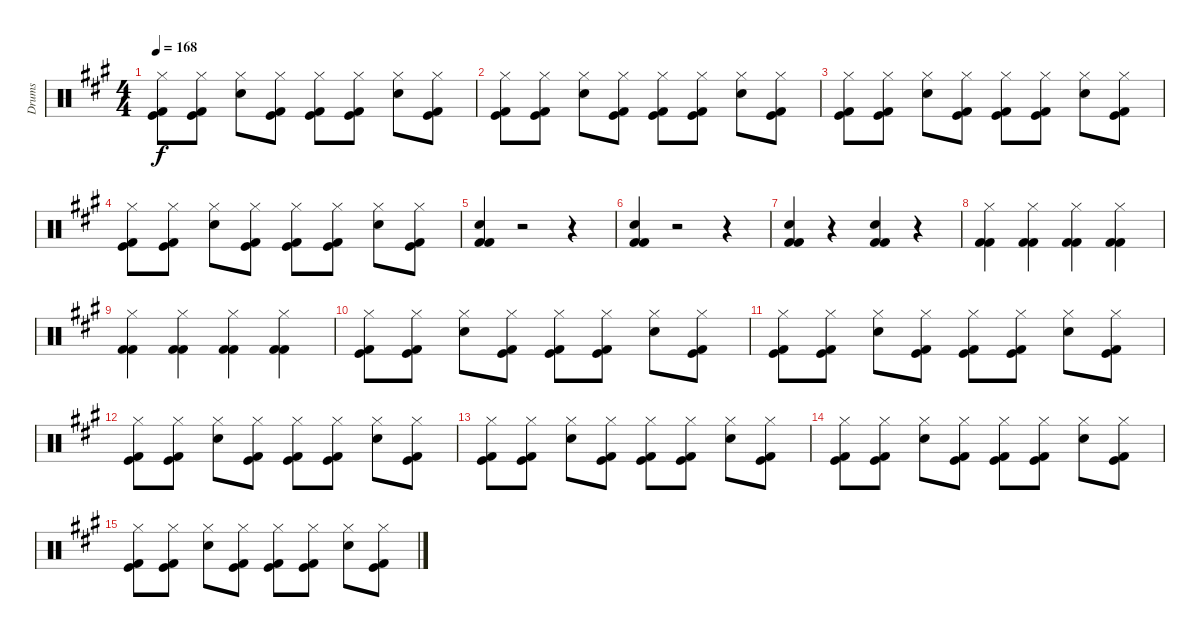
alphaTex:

\track ("Drums" "Drums") {instrument percussion}
\staff {score}
\articulation defaults
\ts (4 4)
\tempo 168
\clef neutral
\ks a
("Hi-Hat (closed)" "Kick (hit)" "Kick (hit) 2").8{dy f} ("Hi-Hat (closed)" "Kick (hit)" "Kick (hit) 2").8 ("Hi-Hat (closed)" "Snare (hit) 2").8 ("Hi-Hat (closed)" "Kick (hit)" "Kick (hit) 2").8 ("Hi-Hat (closed)" "Kick (hit)" "Kick (hit) 2").8 ("Hi-Hat (closed)" "Kick (hit)" "Kick (hit) 2").8 ("Hi-Hat (closed)" "Snare (hit) 2").8 ("Hi-Hat (closed)" "Kick (hit)" "Kick (hit) 2").8 |
("Hi-Hat (closed)" "Kick (hit)" "Kick (hit) 2").8 ("Hi-Hat (closed)" "Kick (hit)" "Kick (hit) 2").8 ("Hi-Hat (closed)" "Snare (hit) 2").8 ("Hi-Hat (closed)" "Kick (hit)" "Kick (hit) 2").8 ("Hi-Hat (closed)" "Kick (hit)" "Kick (hit) 2").8 ("Hi-Hat (closed)" "Kick (hit)" "Kick (hit) 2").8 ("Hi-Hat (closed)" "Snare (hit) 2").8 ("Hi-Hat (closed)" "Kick (hit)" "Kick (hit) 2").8 |
("Hi-Hat (closed)" "Kick (hit)" "Kick (hit) 2").8 ("Hi-Hat (closed)" "Kick (hit)" "Kick (hit) 2").8 ("Hi-Hat (closed)" "Snare (hit) 2").8 ("Hi-Hat (closed)" "Kick (hit)" "Kick (hit) 2").8 ("Hi-Hat (closed)" "Kick (hit)" "Kick (hit) 2").8 ("Hi-Hat (closed)" "Kick (hit)" "Kick (hit) 2").8 ("Hi-Hat (closed)" "Snare (hit) 2").8 ("Hi-Hat (closed)" "Kick (hit)" "Kick (hit) 2").8 |
("Hi-Hat (closed)" "Kick (hit)" "Kick (hit) 2").8 ("Hi-Hat (closed)" "Kick (hit)" "Kick (hit) 2").8 ("Hi-Hat (closed)" "Snare (hit) 2").8 ("Hi-Hat (closed)" "Kick (hit)" "Kick (hit) 2").8 ("Hi-Hat (closed)" "Kick (hit)" "Kick (hit) 2").8 ("Hi-Hat (closed)" "Kick (hit)" "Kick (hit) 2").8 ("Hi-Hat (closed)" "Snare (hit) 2").8 ("Hi-Hat (closed)" "Kick (hit)" "Kick (hit) 2").8 |
("Snare (hit) 2" "Kick (hit) 2" "Kick (hit) 2").4 r.2 r.4 |
("Snare (hit) 2" "Kick (hit) 2" "Kick (hit) 2").4 r.2 r.4 |
("Snare (hit) 2" "Kick (hit) 2" "Kick (hit) 2").4 r.4 ("Snare (hit) 2" "Kick (hit) 2" "Kick (hit) 2").4 r.4 |
("Hi-Hat (closed)" "Kick (hit) 2" "Kick (hit) 2").4 ("Hi-Hat (closed)" "Kick (hit) 2" "Kick (hit) 2").4 ("Hi-Hat (closed)" "Kick (hit) 2" "Kick (hit) 2").4 ("Hi-Hat (closed)" "Kick (hit) 2" "Kick (hit) 2").4 |
("Hi-Hat (closed)" "Kick (hit) 2" "Kick (hit) 2").4 ("Hi-Hat (closed)" "Kick (hit) 2" "Kick (hit) 2").4 ("Hi-Hat (closed)" "Kick (hit) 2" "Kick (hit) 2").4 ("Hi-Hat (closed)" "Kick (hit) 2" "Kick (hit) 2").4 |
("Hi-Hat (closed)" "Kick (hit)" "Kick (hit) 2").8 ("Hi-Hat (closed)" "Kick (hit)" "Kick (hit) 2").8 ("Hi-Hat (closed)" "Snare (hit) 2").8 ("Hi-Hat (closed)" "Kick (hit)" "Kick (hit) 2").8 ("Hi-Hat (closed)" "Kick (hit)" "Kick (hit) 2").8 ("Hi-Hat (closed)" "Kick (hit)" "Kick (hit) 2").8 ("Hi-Hat (closed)" "Snare (hit) 2").8 ("Hi-Hat (closed)" "Kick (hit)" "Kick (hit) 2").8 |
("Hi-Hat (closed)" "Kick (hit)" "Kick (hit) 2").8 ("Hi-Hat (closed)" "Kick (hit)" "Kick (hit) 2").8 ("Hi-Hat (closed)" "Snare (hit) 2").8 ("Hi-Hat (closed)" "Kick (hit)" "Kick (hit) 2").8 ("Hi-Hat (closed)" "Kick (hit)" "Kick (hit) 2").8 ("Hi-Hat (closed)" "Kick (hit)" "Kick (hit) 2").8 ("Hi-Hat (closed)" "Snare (hit) 2").8 ("Hi-Hat (closed)" "Kick (hit)" "Kick (hit) 2").8 |
("Hi-Hat (closed)" "Kick (hit)" "Kick (hit) 2").8 ("Hi-Hat (closed)" "Kick (hit)" "Kick (hit) 2").8 ("Hi-Hat (closed)" "Snare (hit) 2").8 ("Hi-Hat (closed)" "Kick (hit)" "Kick (hit) 2").8 ("Hi-Hat (closed)" "Kick (hit)" "Kick (hit) 2").8 ("Hi-Hat (closed)" "Kick (hit)" "Kick (hit) 2").8 ("Hi-Hat (closed)" "Snare (hit) 2").8 ("Hi-Hat (closed)" "Kick (hit)" "Kick (hit) 2").8 |
("Hi-Hat (closed)" "Kick (hit)" "Kick (hit) 2").8 ("Hi-Hat (closed)" "Kick (hit)" "Kick (hit) 2").8 ("Hi-Hat (closed)" "Snare (hit) 2").8 ("Hi-Hat (closed)" "Kick (hit)" "Kick (hit) 2").8 ("Hi-Hat (closed)" "Kick (hit)" "Kick (hit) 2").8 ("Hi-Hat (closed)" "Kick (hit)" "Kick (hit) 2").8 ("Hi-Hat (closed)" "Snare (hit) 2").8 ("Hi-Hat (closed)" "Kick (hit)" "Kick (hit) 2").8 |
("Hi-Hat (closed)" "Kick (hit)" "Kick (hit) 2").8{volume 0} ("Hi-Hat (closed)" "Kick (hit)" "Kick (hit) 2").8 ("Hi-Hat (closed)" "Snare (hit) 2").8 ("Hi-Hat (closed)" "Kick (hit)" "Kick (hit) 2").8 ("Hi-Hat (closed)" "Kick (hit)" "Kick (hit) 2").8 ("Hi-Hat (closed)" "Kick (hit)" "Kick (hit) 2").8 ("Hi-Hat (closed)" "Snare (hit) 2").8 ("Hi-Hat (closed)" "Kick (hit)" "Kick (hit) 2").8 |
("Hi-Hat (closed)" "Kick (hit)" "Kick (hit) 2").8 ("Hi-Hat (closed)" "Kick (hit)" "Kick (hit) 2").8 ("Hi-Hat (closed)" "Snare (hit) 2").8 ("Hi-Hat (closed)" "Kick (hit)" "Kick (hit) 2").8 ("Hi-Hat (closed)" "Kick (hit)" "Kick (hit) 2").8 ("Hi-Hat (closed)" "Kick (hit)" "Kick (hit) 2").8 ("Hi-Hat (closed)" "Snare (hit) 2").8 ("Hi-Hat (closed)" "Kick (hit)" "Kick (hit) 2").8
